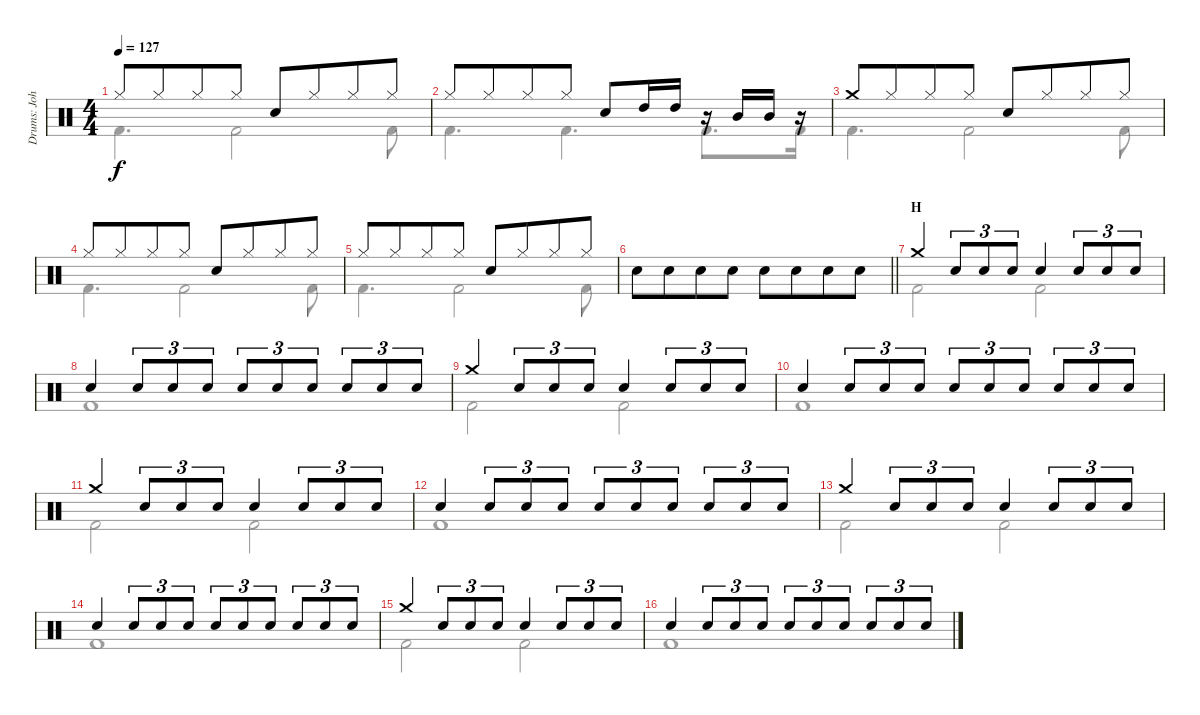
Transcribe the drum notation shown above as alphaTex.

\track ("Drums: John" "Drums: Joh") {instrument percussion}
\staff {score}
\articulation defaults
\voice
\ts (4 4)
\tempo 127
\clef neutral
\ks c "Hi-Hat (closed)".8{dy f} "Hi-Hat (closed)".8{beam merge} "Hi-Hat (closed)".8 "Hi-Hat (closed)".8 "Snare (hit) 2".8 "Hi-Hat (closed)".8{beam merge} "Hi-Hat (closed)".8 "Hi-Hat (closed)".8
|
"Hi-Hat (closed)".8 "Hi-Hat (closed)".8{beam merge} "Hi-Hat (closed)".8 "Hi-Hat (closed)".8 "Snare (hit) 2".8 "High Tom (hit)".16 "High Tom (hit)".16 r.16 "Mid Tom (hit)".16 "Mid Tom (hit)".16 r.16 |
"Crash medium (hit)".8 "Hi-Hat (closed)".8{beam merge} "Hi-Hat (closed)".8 "Hi-Hat (closed)".8 "Snare (hit) 2".8 "Hi-Hat (closed)".8{beam merge} "Hi-Hat (closed)".8 "Hi-Hat (closed)".8 |
"Hi-Hat (closed)".8 "Hi-Hat (closed)".8{beam merge} "Hi-Hat (closed)".8 "Hi-Hat (closed)".8 "Snare (hit) 2".8 "Hi-Hat (closed)".8{beam merge} "Hi-Hat (closed)".8 "Hi-Hat (closed)".8 |
"Hi-Hat (closed)".8 "Hi-Hat (closed)".8{beam merge} "Hi-Hat (closed)".8 "Hi-Hat (closed)".8 "Snare (hit) 2".8 "Hi-Hat (closed)".8{beam merge} "Hi-Hat (closed)".8 "Hi-Hat (closed)".8 |
\barLineRight lightlight "Snare (hit) 2".8 "Snare (hit) 2".8{beam merge} "Snare (hit) 2".8 "Snare (hit) 2".8 "Snare (hit) 2".8 "Snare (hit) 2".8{beam merge} "Snare (hit) 2".8 "Snare (hit) 2".8
|
\section ("" "H")
"Crash medium (hit)".4 "Snare (hit) 2".8{tu (3 2)} "Snare (hit) 2".8{tu (3 2)} "Snare (hit) 2".8{tu (3 2)} "Snare (hit) 2".4 "Snare (hit) 2".8{tu (3 2)} "Snare (hit) 2".8{tu (3 2)} "Snare (hit) 2".8{tu (3 2)} |
"Snare (hit) 2".4 "Snare (hit) 2".8{tu (3 2)} "Snare (hit) 2".8{tu (3 2)} "Snare (hit) 2".8{tu (3 2)} "Snare (hit) 2".8{tu (3 2)} "Snare (hit) 2".8{tu (3 2)} "Snare (hit) 2".8{tu (3 2)} "Snare (hit) 2".8{tu (3 2)} "Snare (hit) 2".8{tu (3 2)} "Snare (hit) 2".8{tu (3 2)} |
"Crash medium (hit)".4 "Snare (hit) 2".8{tu (3 2)} "Snare (hit) 2".8{tu (3 2)} "Snare (hit) 2".8{tu (3 2)} "Snare (hit) 2".4 "Snare (hit) 2".8{tu (3 2)} "Snare (hit) 2".8{tu (3 2)} "Snare (hit) 2".8{tu (3 2)} |
"Snare (hit) 2".4 "Snare (hit) 2".8{tu (3 2)} "Snare (hit) 2".8{tu (3 2)} "Snare (hit) 2".8{tu (3 2)} "Snare (hit) 2".8{tu (3 2)} "Snare (hit) 2".8{tu (3 2)} "Snare (hit) 2".8{tu (3 2)} "Snare (hit) 2".8{tu (3 2)} "Snare (hit) 2".8{tu (3 2)} "Snare (hit) 2".8{tu (3 2)} |
"Crash medium (hit)".4 "Snare (hit) 2".8{tu (3 2)} "Snare (hit) 2".8{tu (3 2)} "Snare (hit) 2".8{tu (3 2)} "Snare (hit) 2".4 "Snare (hit) 2".8{tu (3 2)} "Snare (hit) 2".8{tu (3 2)} "Snare (hit) 2".8{tu (3 2)} |
"Snare (hit) 2".4 "Snare (hit) 2".8{tu (3 2)} "Snare (hit) 2".8{tu (3 2)} "Snare (hit) 2".8{tu (3 2)} "Snare (hit) 2".8{tu (3 2)} "Snare (hit) 2".8{tu (3 2)} "Snare (hit) 2".8{tu (3 2)} "Snare (hit) 2".8{tu (3 2)} "Snare (hit) 2".8{tu (3 2)} "Snare (hit) 2".8{tu (3 2)} |
"Crash medium (hit)".4 "Snare (hit) 2".8{tu (3 2)} "Snare (hit) 2".8{tu (3 2)} "Snare (hit) 2".8{tu (3 2)} "Snare (hit) 2".4 "Snare (hit) 2".8{tu (3 2)} "Snare (hit) 2".8{tu (3 2)} "Snare (hit) 2".8{tu (3 2)} |
"Snare (hit) 2".4 "Snare (hit) 2".8{tu (3 2)} "Snare (hit) 2".8{tu (3 2)} "Snare (hit) 2".8{tu (3 2)} "Snare (hit) 2".8{tu (3 2)} "Snare (hit) 2".8{tu (3 2)} "Snare (hit) 2".8{tu (3 2)} "Snare (hit) 2".8{tu (3 2)} "Snare (hit) 2".8{tu (3 2)} "Snare (hit) 2".8{tu (3 2)} |
"Crash medium (hit)".4 "Snare (hit) 2".8{tu (3 2)} "Snare (hit) 2".8{tu (3 2)} "Snare (hit) 2".8{tu (3 2)} "Snare (hit) 2".4 "Snare (hit) 2".8{tu (3 2)} "Snare (hit) 2".8{tu (3 2)} "Snare (hit) 2".8{tu (3 2)} |
"Snare (hit) 2".4 "Snare (hit) 2".8{tu (3 2)} "Snare (hit) 2".8{tu (3 2)} "Snare (hit) 2".8{tu (3 2)} "Snare (hit) 2".8{tu (3 2)} "Snare (hit) 2".8{tu (3 2)} "Snare (hit) 2".8{tu (3 2)} "Snare (hit) 2".8{tu (3 2)} "Snare (hit) 2".8{tu (3 2)} "Snare (hit) 2".8{tu (3 2)}
\voice
\clef neutral
\ottava regular
\simile none
\ks c "Kick (hit) 2".4{d dy f} "Kick (hit) 2".2 "Kick (hit) 2".8
|
"Kick (hit) 2".4{d} "Kick (hit) 2".4{d} "Kick (hit) 2".8{d} "Kick (hit) 2".16 |
"Kick (hit) 2".4{d} "Kick (hit) 2".2 "Kick (hit) 2".8 |
"Kick (hit) 2".4{d} "Kick (hit) 2".2 "Kick (hit) 2".8 |
"Kick (hit) 2".4{d} "Kick (hit) 2".2 "Kick (hit) 2".8 |
\barLineRight lightlight
|
"Kick (hit) 2".2 "Kick (hit) 2".2 |
"Kick (hit) 2".1 |
"Kick (hit) 2".2 "Kick (hit) 2".2 |
"Kick (hit) 2".1 |
"Kick (hit) 2".2 "Kick (hit) 2".2 |
"Kick (hit) 2".1 |
"Kick (hit) 2".2 "Kick (hit) 2".2 |
"Kick (hit) 2".1 |
"Kick (hit) 2".2 "Kick (hit) 2".2 |
"Kick (hit) 2".1
